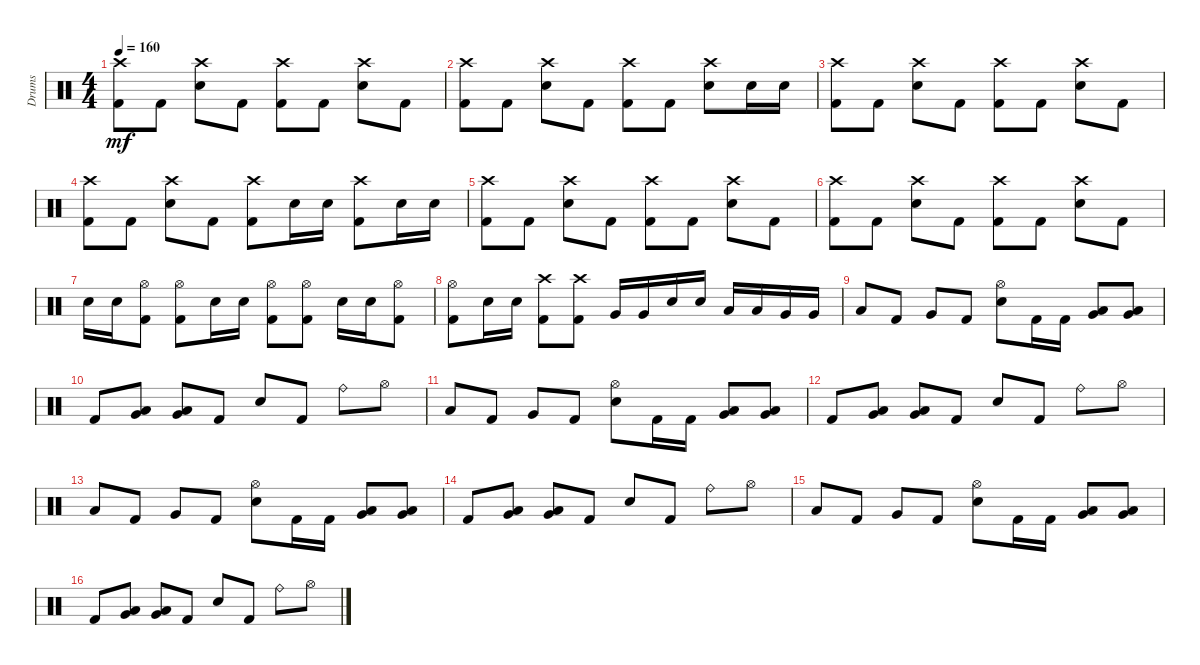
\track ("Drums" "Drums") {instrument percussion}
\staff {score}
\articulation defaults
\ts (4 4)
\tempo 160
\clef neutral
\ks c
("Crash high (hit)" "Kick (hit) 2").8{dy mf} "Kick (hit) 2".8 ("Crash high (hit)" "Electric Snare (hit)").8 "Kick (hit) 2".8 ("Crash high (hit)" "Kick (hit) 2").8 "Kick (hit) 2".8 ("Crash high (hit)" "Electric Snare (hit)").8 "Kick (hit) 2".8 |
("Crash high (hit)" "Kick (hit) 2").8 "Kick (hit) 2".8 ("Crash high (hit)" "Electric Snare (hit)").8 "Kick (hit) 2".8 ("Crash high (hit)" "Kick (hit) 2").8 "Kick (hit) 2".8 ("Crash high (hit)" "Electric Snare (hit)").8 "Electric Snare (hit)".16 "Electric Snare (hit)".16 |
("Crash high (hit)" "Kick (hit) 2").8 "Kick (hit) 2".8 ("Crash high (hit)" "Electric Snare (hit)").8 "Kick (hit) 2".8 ("Crash high (hit)" "Kick (hit) 2").8 "Kick (hit) 2".8 ("Crash high (hit)" "Electric Snare (hit)").8 "Kick (hit) 2".8 |
("Crash high (hit)" "Kick (hit) 2").8 "Kick (hit) 2".8 ("Crash high (hit)" "Electric Snare (hit)").8 "Kick (hit) 2".8 ("Crash high (hit)" "Kick (hit) 2").8 "Electric Snare (hit)".16 "Electric Snare (hit)".16 ("Crash high (hit)" "Kick (hit) 2").8 "Electric Snare (hit)".16 "Electric Snare (hit)".16 |
("Crash high (hit)" "Kick (hit) 2").8 "Kick (hit) 2".8 ("Crash high (hit)" "Electric Snare (hit)").8 "Kick (hit) 2".8 ("Crash high (hit)" "Kick (hit) 2").8 "Kick (hit) 2".8 ("Crash high (hit)" "Electric Snare (hit)").8 "Kick (hit) 2".8 |
("Crash high (hit)" "Kick (hit) 2").8 "Kick (hit) 2".8 ("Crash high (hit)" "Electric Snare (hit)").8 "Kick (hit) 2".8 ("Crash high (hit)" "Kick (hit) 2").8 "Kick (hit) 2".8 ("Crash high (hit)" "Electric Snare (hit)").8 "Kick (hit) 2".8 |
"Electric Snare (hit)".16 "Electric Snare (hit)".16 ("Hi-Hat (open)" "Kick (hit) 2").8 ("Hi-Hat (open)" "Kick (hit) 2").8 "Electric Snare (hit)".16 "Electric Snare (hit)".16 ("Hi-Hat (open)" "Kick (hit) 2").8 ("Hi-Hat (open)" "Kick (hit) 2").8 "Electric Snare (hit)".16 "Electric Snare (hit)".16 ("Hi-Hat (open)" "Kick (hit) 2").8 |
("Hi-Hat (open)" "Kick (hit) 2").8 "Electric Snare (hit)".16 "Electric Snare (hit)".16 ("Crash high (hit)" "Kick (hit) 2").8 ("Crash high (hit)" "Kick (hit) 2").8 "Very Low Tom (hit)".16 "Very Low Tom (hit)".16 "Electric Snare (hit)".16 "Electric Snare (hit)".16 "Low Tom (hit)".16 "Low Tom (hit)".16 "Very Low Tom (hit)".16 "Very Low Tom (hit)".16 |
"Low Tom (hit)".8 "Kick (hit) 2".8 "Very Low Tom (hit)".8 "Kick (hit) 2".8 ("Hi-Hat (open)" "Electric Snare (hit)").8 "Kick (hit) 2".16 "Kick (hit) 2".16 ("Very Low Tom (hit)" "Low Tom (hit)").8 ("Very Low Tom (hit)" "Low Tom (hit)").8 |
"Kick (hit) 2".8 ("Low Floor Tom (hit)" "Very Low Tom (hit)").8 ("Low Floor Tom (hit)" "Very Low Tom (hit)").8 "Kick (hit) 2".8 "Electric Snare (hit)".8 "Kick (hit) 2".8 "Ride (bell)".8 "Hi-Hat (open)".8 |
"Low Tom (hit)".8 "Kick (hit) 2".8 "Very Low Tom (hit)".8 "Kick (hit) 2".8 ("Hi-Hat (open)" "Electric Snare (hit)").8 "Kick (hit) 2".16 "Kick (hit) 2".16 ("Very Low Tom (hit)" "Low Tom (hit)").8 ("Very Low Tom (hit)" "Low Tom (hit)").8 |
"Kick (hit) 2".8 ("Low Floor Tom (hit)" "Very Low Tom (hit)").8 ("Low Floor Tom (hit)" "Very Low Tom (hit)").8 "Kick (hit) 2".8 "Electric Snare (hit)".8 "Kick (hit) 2".8 "Ride (bell)".8 "Hi-Hat (open)".8 |
"Low Tom (hit)".8 "Kick (hit) 2".8 "Very Low Tom (hit)".8 "Kick (hit) 2".8 ("Hi-Hat (open)" "Electric Snare (hit)").8 "Kick (hit) 2".16 "Kick (hit) 2".16 ("Very Low Tom (hit)" "Low Tom (hit)").8 ("Very Low Tom (hit)" "Low Tom (hit)").8 |
"Kick (hit) 2".8 ("Low Floor Tom (hit)" "Very Low Tom (hit)").8 ("Low Floor Tom (hit)" "Very Low Tom (hit)").8 "Kick (hit) 2".8 "Electric Snare (hit)".8 "Kick (hit) 2".8 "Ride (bell)".8 "Hi-Hat (open)".8 |
"Low Tom (hit)".8 "Kick (hit) 2".8 "Very Low Tom (hit)".8 "Kick (hit) 2".8 ("Hi-Hat (open)" "Electric Snare (hit)").8 "Kick (hit) 2".16 "Kick (hit) 2".16 ("Very Low Tom (hit)" "Low Tom (hit)").8 ("Very Low Tom (hit)" "Low Tom (hit)").8 |
"Kick (hit) 2".8 ("Low Floor Tom (hit)" "Very Low Tom (hit)").8 ("Low Floor Tom (hit)" "Very Low Tom (hit)").8 "Kick (hit) 2".8 "Electric Snare (hit)".8 "Kick (hit) 2".8 "Ride (bell)".8 "Hi-Hat (open)".8
